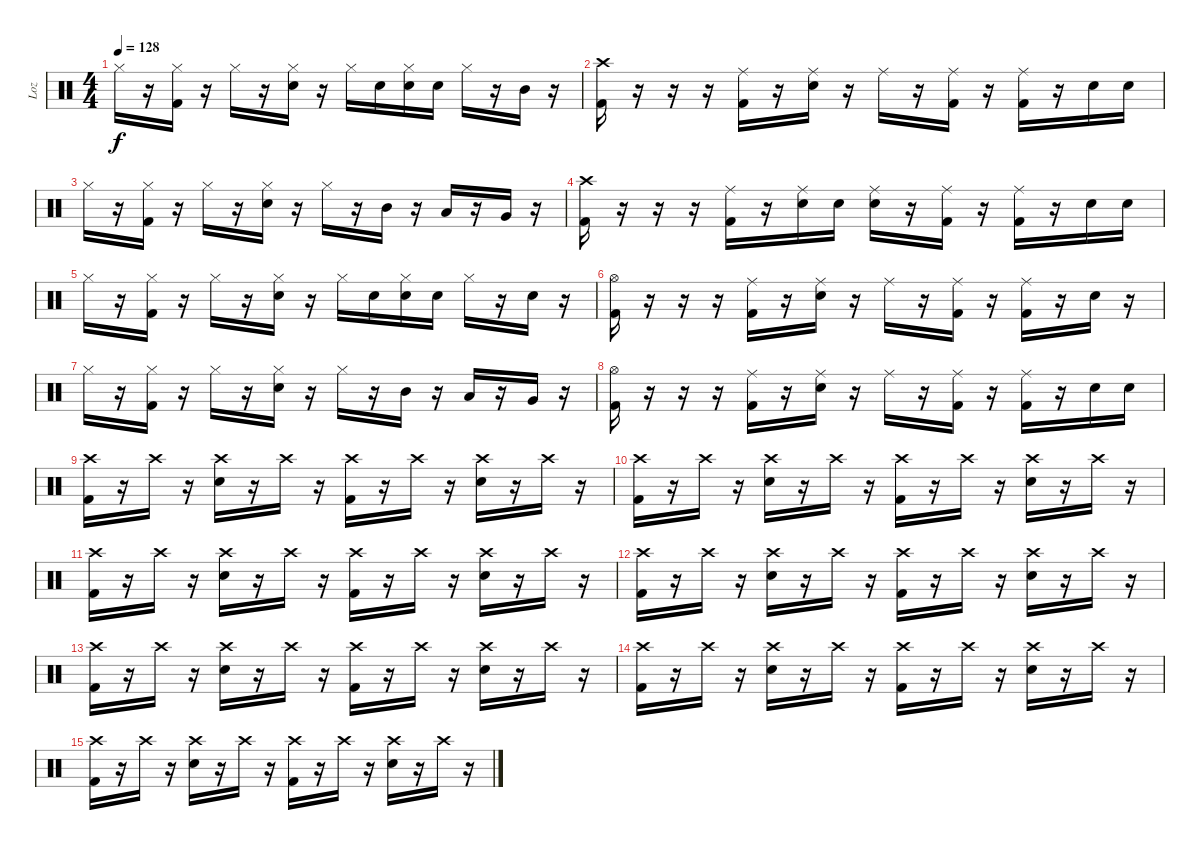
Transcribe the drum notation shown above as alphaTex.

\track ("Loz" "Loz") {instrument percussion}
\staff {score}
\articulation defaults
\ts (4 4)
\tempo 128
\clef neutral
\ks c "Hi-Hat (closed)".16{dy f}
r.16 ("Hi-Hat (closed)" "Kick (hit) 2").16 r.16 "Hi-Hat (closed)".16 r.16 ("Hi-Hat (closed)" "Snare (hit) 2").16 r.16 "Hi-Hat (closed)".16 "Snare (hit) 2".16 ("Hi-Hat (closed)" "Snare (hit) 2").16 "Snare (hit) 2".16 "Hi-Hat (closed)".16 r.16 "Mid Tom (hit)".16 r.16 |
("Crash high (hit)" "Kick (hit) 2").16 r.16 r.16 r.16 ("Ride (middle)" "Kick (hit) 2").16 r.16 ("Ride (middle)" "Snare (hit) 2").16 r.16 "Ride (middle)".16 r.16 ("Ride (middle)" "Kick (hit) 2").16 r.16 ("Ride (middle)" "Kick (hit) 2").16 r.16 "Snare (hit) 2".16 "Snare (hit) 2".16 |
"Hi-Hat (closed)".16 r.16 ("Hi-Hat (closed)" "Kick (hit) 2").16 r.16 "Hi-Hat (closed)".16 r.16 ("Hi-Hat (closed)" "Snare (hit) 2").16 r.16 "Hi-Hat (closed)".16 r.16 "Mid Tom (hit)".16 r.16 "Low Tom (hit)".16 r.16 "Very Low Tom (hit)".16 r.16 |
("Crash high (hit)" "Kick (hit) 2").16 r.16 r.16 r.16 ("Ride (middle)" "Kick (hit) 2").16 r.16 ("Ride (middle)" "Snare (hit) 2").16 "Snare (hit) 2".16 ("Ride (middle)" "Snare (hit) 2").16 r.16 ("Ride (middle)" "Kick (hit) 2").16 r.16 ("Ride (middle)" "Kick (hit) 2").16 r.16 "Snare (hit) 2".16 "Snare (hit) 2".16 |
"Hi-Hat (closed)".16 r.16 ("Hi-Hat (closed)" "Kick (hit) 2").16 r.16 "Hi-Hat (closed)".16 r.16 ("Hi-Hat (closed)" "Snare (hit) 2").16 r.16 "Hi-Hat (closed)".16 "Snare (hit) 2".16 ("Hi-Hat (closed)" "Snare (hit) 2").16 "Snare (hit) 2".16 "Hi-Hat (closed)".16 r.16 "Snare (hit) 2".16 r.16 |
("Hi-Hat (open)" "Kick (hit) 2").16 r.16 r.16 r.16 ("Ride (middle)" "Kick (hit) 2").16 r.16 ("Ride (middle)" "Snare (hit) 2").16 r.16 "Ride (middle)".16 r.16 ("Ride (middle)" "Kick (hit) 2").16 r.16 ("Ride (middle)" "Kick (hit) 2").16 r.16 "Snare (hit) 2".16 r.16 |
"Hi-Hat (closed)".16 r.16 ("Hi-Hat (closed)" "Kick (hit) 2").16 r.16 "Hi-Hat (closed)".16 r.16 ("Hi-Hat (closed)" "Snare (hit) 2").16 r.16 "Hi-Hat (closed)".16 r.16 "Mid Tom (hit)".16 r.16 "Low Tom (hit)".16 r.16 "Very Low Tom (hit)".16 r.16 |
("Hi-Hat (open)" "Kick (hit) 2").16 r.16 r.16 r.16 ("Ride (middle)" "Kick (hit) 2").16 r.16 ("Ride (middle)" "Snare (hit) 2").16 r.16 "Ride (middle)".16 r.16 ("Ride (middle)" "Kick (hit) 2").16 r.16 ("Ride (middle)" "Kick (hit) 2").16 r.16 "Snare (hit) 2".16 "Snare (hit) 2".16 |
("Crash high (hit)" "Kick (hit) 2").16 r.16 "Crash high (hit)".16 r.16 ("Crash high (hit)" "Snare (hit) 2").16 r.16 "Crash high (hit)".16 r.16 ("Crash high (hit)" "Kick (hit) 2").16 r.16 "Crash high (hit)".16 r.16 ("Crash high (hit)" "Snare (hit) 2").16 r.16 "Crash high (hit)".16 r.16 |
("Crash high (hit)" "Kick (hit) 2").16 r.16 "Crash high (hit)".16 r.16 ("Crash high (hit)" "Snare (hit) 2").16 r.16 "Crash high (hit)".16 r.16 ("Crash high (hit)" "Kick (hit) 2").16 r.16 "Crash high (hit)".16 r.16 ("Crash high (hit)" "Snare (hit) 2").16 r.16 "Crash high (hit)".16 r.16 |
("Crash high (hit)" "Kick (hit) 2").16 r.16 "Crash high (hit)".16 r.16 ("Crash high (hit)" "Snare (hit) 2").16 r.16 "Crash high (hit)".16 r.16 ("Crash high (hit)" "Kick (hit) 2").16 r.16 "Crash high (hit)".16 r.16 ("Crash high (hit)" "Snare (hit) 2").16 r.16 "Crash high (hit)".16 r.16 |
("Crash high (hit)" "Kick (hit) 2").16 r.16 "Crash high (hit)".16 r.16 ("Crash high (hit)" "Snare (hit) 2").16 r.16 "Crash high (hit)".16 r.16 ("Crash high (hit)" "Kick (hit) 2").16 r.16 "Crash high (hit)".16 r.16 ("Crash high (hit)" "Snare (hit) 2").16 r.16 "Crash high (hit)".16 r.16 |
("Crash high (hit)" "Kick (hit) 2").16 r.16 "Crash high (hit)".16 r.16 ("Crash high (hit)" "Snare (hit) 2").16 r.16 "Crash high (hit)".16 r.16 ("Crash high (hit)" "Kick (hit) 2").16 r.16 "Crash high (hit)".16 r.16 ("Crash high (hit)" "Snare (hit) 2").16 r.16 "Crash high (hit)".16 r.16 |
("Crash high (hit)" "Kick (hit) 2").16 r.16 "Crash high (hit)".16 r.16 ("Crash high (hit)" "Snare (hit) 2").16 r.16 "Crash high (hit)".16 r.16 ("Crash high (hit)" "Kick (hit) 2").16 r.16 "Crash high (hit)".16 r.16 ("Crash high (hit)" "Snare (hit) 2").16 r.16 "Crash high (hit)".16 r.16 |
("Crash high (hit)" "Kick (hit) 2").16 r.16 "Crash high (hit)".16 r.16 ("Crash high (hit)" "Snare (hit) 2").16 r.16 "Crash high (hit)".16 r.16 ("Crash high (hit)" "Kick (hit) 2").16 r.16 "Crash high (hit)".16 r.16 ("Crash high (hit)" "Snare (hit) 2").16 r.16 "Crash high (hit)".16 r.16
